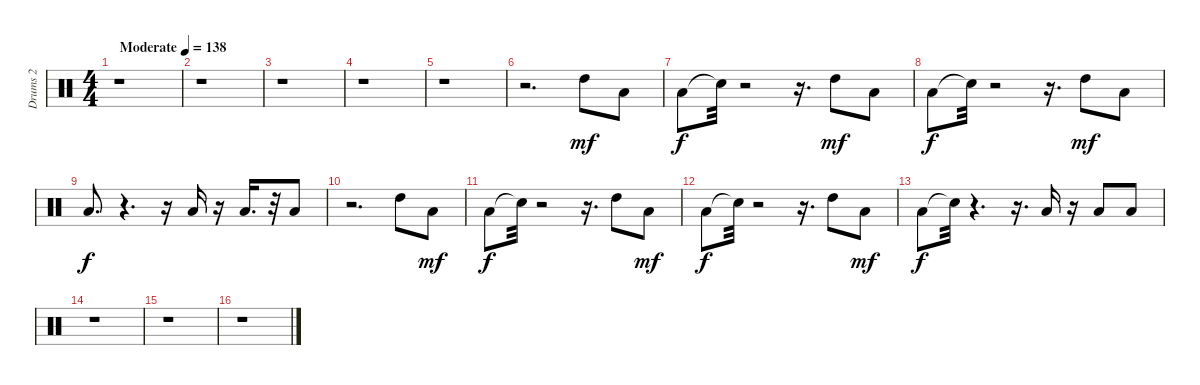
\track ("Drums 2" "Drums 2") {instrument percussion}
\staff {score}
\articulation defaults
\ts (4 4)
\tempo (138 "Moderate")
\clef neutral
\ks c
r.1{dy mf} |
r.1 |
r.1 |
r.1 |
r.1 |
r.2{d} "High Tom (hit)".8 "Low Tom (hit)".8 |
"Low Floor Tom (hit)".8{dy f} "Snare (hit)"{t}.32 r.2 r.16{d} "High Tom (hit)".8{dy mf} "Low Tom (hit)".8 |
"Low Floor Tom (hit)".8{dy f} "Snare (hit)"{t}.32 r.2 r.16{d} "High Tom (hit)".8{dy mf} "Low Tom (hit)".8 |
"Low Floor Tom (hit)".8{d dy f} r.4{d} r.16 "Low Floor Tom (hit)".16 r.16 "Low Floor Tom (hit)".16{d} r.32 "Low Tom (hit)".8 |
r.2{d} "High Tom (hit)".8 "Low Tom (hit)".8{dy mf} |
"Low Floor Tom (hit)".8{dy f} "Snare (hit)"{t}.32 r.2 r.16{d} "High Tom (hit)".8 "Low Tom (hit)".8{dy mf} |
"Low Floor Tom (hit)".8{dy f} "Snare (hit)"{t}.32 r.2 r.16{d} "High Tom (hit)".8 "Low Tom (hit)".8{dy mf} |
"Low Floor Tom (hit)".8{dy f} "Snare (hit)"{t}.32 r.4{d} r.16{d} "Low Floor Tom (hit)".16 r.16 "Low Floor Tom (hit)".8 "Low Tom (hit)".8 |
r.1 |
r.1 |
r.1
